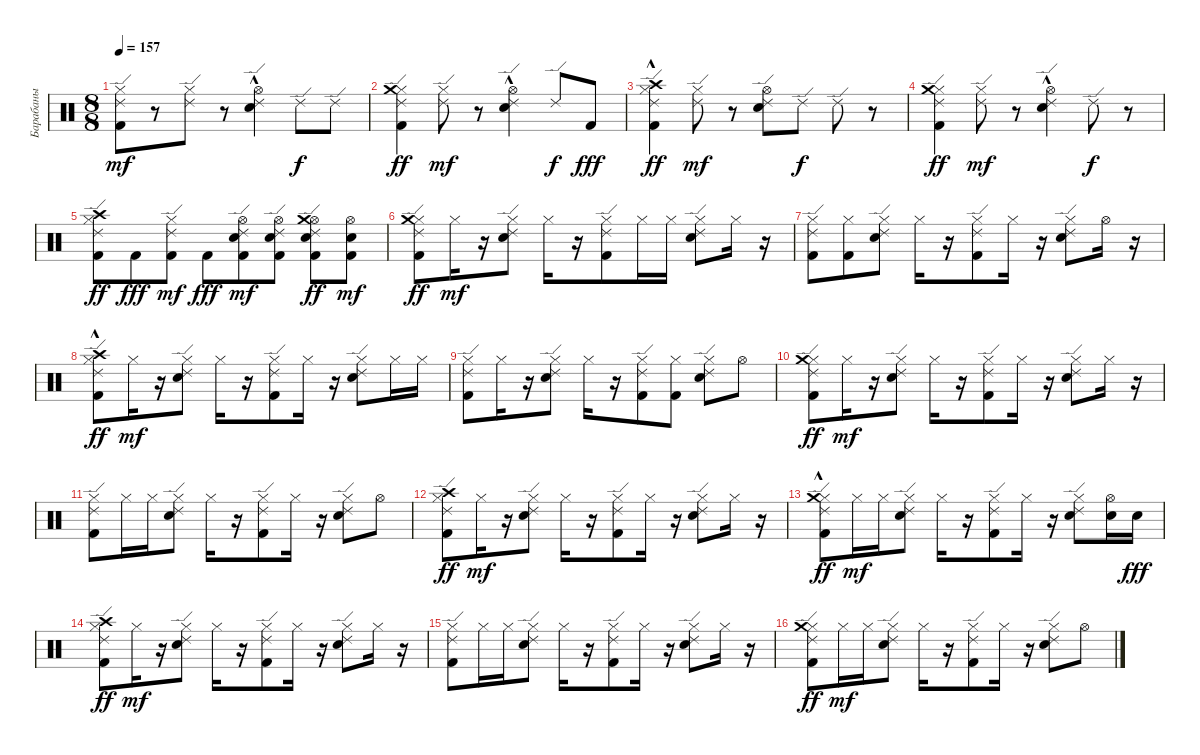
\track ("Барабаны" "Барабаны") {instrument percussion}
\staff {score}
\articulation defaults
\ts (8 8)
\tempo 157
\clef neutral
\ks c
("Kick (hit) 2" "Hi-Hat (closed)" "Ride (edge) 2").8{dy mf} r.8 ("Hi-Hat (closed)" "Ride (edge) 2").8 r.8 ("Snare (hit) 2" "Hi-Hat (open)"{hac} "Ride (edge) 2").4 "Ride (edge) 2".8{dy f} "Ride (edge) 2".8 |
("Kick (hit) 2" "Hi-Hat (closed)" "Ride (edge) 2" "Crash medium (hit)").4{dy ff} ("Hi-Hat (closed)" "Ride (edge) 2").8{dy mf} r.8 ("Snare (hit) 2" "Hi-Hat (open)"{hac} "Ride (edge) 2").4 "Ride (edge) 2".8{dy f} "Kick (hit) 2".8{dy fff} |
("Kick (hit) 2" "Hi-Hat (closed)" "Ride (edge) 2" "Crash high (hit)"{hac}).4{dy ff} ("Hi-Hat (closed)" "Ride (edge) 2").8{dy mf} r.8 ("Snare (hit) 2" "Hi-Hat (open)" "Ride (edge) 2").8 "Ride (edge) 2".8{dy f} "Ride (edge) 2".8 r.8 |
("Kick (hit) 2" "Hi-Hat (closed)" "Ride (edge) 2" "Crash medium (hit)").4{dy ff} ("Hi-Hat (closed)" "Ride (edge) 2").8{dy mf} r.8 ("Snare (hit) 2" "Hi-Hat (open)"{hac} "Ride (edge) 2").4 "Ride (edge) 2".8{dy f} r.8 |
("Kick (hit) 2" "Hi-Hat (closed)" "Ride (edge) 2" "Crash high (hit)").8{dy ff} "Kick (hit) 2".8{dy fff} ("Kick (hit) 2" "Hi-Hat (closed)" "Ride (edge) 2").8{dy mf} "Kick (hit) 2".8{dy fff} ("Kick (hit) 2" "Snare (hit) 2" "Hi-Hat (open)" "Ride (edge) 2").8{dy mf} ("Kick (hit) 2" "Snare (hit) 2" "Hi-Hat (open)" "Ride (edge) 2").8 ("Kick (hit) 2" "Snare (hit) 2" "Hi-Hat (open)" "Ride (edge) 2" "Crash medium (hit)").8{dy ff} ("Kick (hit) 2" "Snare (hit) 2" "Hi-Hat (open)").8{dy mf} |
("Kick (hit) 2" "Hi-Hat (closed)" "Ride (edge) 2" "Crash medium (hit)").8{dy ff} "Hi-Hat (closed)".16{dy mf} r.16 ("Snare (hit) 2" "Hi-Hat (closed)" "Ride (edge) 2").8 "Hi-Hat (closed)".16 r.16 ("Kick (hit) 2" "Hi-Hat (closed)" "Ride (edge) 2").8 "Hi-Hat (closed)".16 "Hi-Hat (closed)".16 ("Snare (hit) 2" "Hi-Hat (closed)" "Ride (edge) 2").8 "Hi-Hat (closed)".16 r.16 |
("Kick (hit) 2" "Hi-Hat (closed)" "Ride (edge) 2").8 ("Kick (hit) 2" "Hi-Hat (closed)").8 ("Snare (hit) 2" "Hi-Hat (closed)" "Ride (edge) 2").8 "Hi-Hat (closed)".16 r.16 ("Kick (hit) 2" "Hi-Hat (closed)" "Ride (edge) 2").8 "Hi-Hat (closed)".16 r.16 ("Snare (hit) 2" "Hi-Hat (closed)" "Ride (edge) 2").8 "Hi-Hat (open)".16 r.16 |
("Kick (hit) 2" "Hi-Hat (closed)" "Ride (edge) 2" "Crash high (hit)"{hac}).8{dy ff} "Hi-Hat (closed)".16{dy mf} r.16 ("Snare (hit) 2" "Hi-Hat (closed)" "Ride (edge) 2").8 "Hi-Hat (closed)".16 r.16 ("Kick (hit) 2" "Hi-Hat (closed)" "Ride (edge) 2").8 "Hi-Hat (closed)".16 r.16 ("Snare (hit) 2" "Hi-Hat (closed)" "Ride (edge) 2").8 "Hi-Hat (closed)".16 "Hi-Hat (closed)".16 |
("Kick (hit) 2" "Hi-Hat (closed)" "Ride (edge) 2").8 "Hi-Hat (closed)".16 r.16 ("Snare (hit) 2" "Hi-Hat (closed)" "Ride (edge) 2").8 "Hi-Hat (closed)".16 r.16 ("Kick (hit) 2" "Hi-Hat (closed)" "Ride (edge) 2").8 ("Kick (hit) 2" "Hi-Hat (closed)").8 ("Snare (hit) 2" "Hi-Hat (closed)" "Ride (edge) 2").8 "Hi-Hat (open)".8 |
("Kick (hit) 2" "Hi-Hat (closed)" "Ride (edge) 2" "Crash medium (hit)").8{dy ff} "Hi-Hat (closed)".16{dy mf} r.16 ("Snare (hit) 2" "Hi-Hat (closed)" "Ride (edge) 2").8 "Hi-Hat (closed)".16 r.16 ("Kick (hit) 2" "Hi-Hat (closed)" "Ride (edge) 2").8 "Hi-Hat (closed)".16 r.16 ("Snare (hit) 2" "Hi-Hat (closed)" "Ride (edge) 2").8 "Hi-Hat (closed)".16 r.16 |
("Kick (hit) 2" "Hi-Hat (closed)" "Ride (edge) 2").8 "Hi-Hat (closed)".16 "Hi-Hat (closed)".16 ("Snare (hit) 2" "Hi-Hat (closed)" "Ride (edge) 2").8 "Hi-Hat (closed)".16 r.16 ("Kick (hit) 2" "Hi-Hat (closed)" "Ride (edge) 2").8 "Hi-Hat (closed)".16 r.16 ("Snare (hit) 2" "Hi-Hat (closed)" "Ride (edge) 2").8 "Hi-Hat (open)".8 |
("Kick (hit) 2" "Hi-Hat (closed)" "Ride (edge) 2" "Crash high (hit)").8{dy ff} "Hi-Hat (closed)".16{dy mf} r.16 ("Snare (hit) 2" "Hi-Hat (closed)" "Ride (edge) 2").8 "Hi-Hat (closed)".16 r.16 ("Kick (hit) 2" "Hi-Hat (closed)" "Ride (edge) 2").8 "Hi-Hat (closed)".16 r.16 ("Snare (hit) 2" "Hi-Hat (closed)" "Ride (edge) 2").8 "Hi-Hat (closed)".16 r.16 |
("Kick (hit) 2" "Hi-Hat (closed)" "Ride (edge) 2" "Crash medium (hit)"{hac}).8{dy ff} "Hi-Hat (closed)".16{dy mf} "Hi-Hat (closed)".16 ("Snare (hit) 2" "Hi-Hat (closed)" "Ride (edge) 2").8 "Hi-Hat (closed)".16 r.16 ("Kick (hit) 2" "Hi-Hat (closed)" "Ride (edge) 2").8 "Hi-Hat (closed)".16 r.16 ("Snare (hit) 2" "Hi-Hat (closed)" "Ride (edge) 2").8 ("Snare (hit) 2" "Hi-Hat (open)").16 "Snare (hit) 2".16{dy fff} |
("Kick (hit) 2" "Hi-Hat (closed)" "Ride (edge) 2" "Crash high (hit)").8{dy ff} "Hi-Hat (closed)".16{dy mf} r.16 ("Snare (hit) 2" "Hi-Hat (closed)" "Ride (edge) 2").8 "Hi-Hat (closed)".16 r.16 ("Kick (hit) 2" "Hi-Hat (closed)" "Ride (edge) 2").8 "Hi-Hat (closed)".16 r.16 ("Snare (hit) 2" "Hi-Hat (closed)" "Ride (edge) 2").8 "Hi-Hat (closed)".16 r.16 |
("Kick (hit) 2" "Hi-Hat (closed)" "Ride (edge) 2").8 "Hi-Hat (closed)".16 "Hi-Hat (closed)".16 ("Snare (hit) 2" "Hi-Hat (closed)" "Ride (edge) 2").8 "Hi-Hat (closed)".16 r.16 ("Kick (hit) 2" "Hi-Hat (closed)" "Ride (edge) 2").8 "Hi-Hat (closed)".16 r.16 ("Snare (hit) 2" "Hi-Hat (closed)" "Ride (edge) 2").8 "Hi-Hat (closed)".16 r.16 |
("Kick (hit) 2" "Hi-Hat (closed)" "Ride (edge) 2" "Crash medium (hit)").8{dy ff} "Hi-Hat (closed)".16{dy mf} "Hi-Hat (closed)".16 ("Snare (hit) 2" "Hi-Hat (closed)" "Ride (edge) 2").8 "Hi-Hat (closed)".16 r.16 ("Kick (hit) 2" "Hi-Hat (closed)" "Ride (edge) 2").8 "Hi-Hat (closed)".16 r.16 ("Snare (hit) 2" "Hi-Hat (closed)" "Ride (edge) 2").8 "Hi-Hat (open)".8
